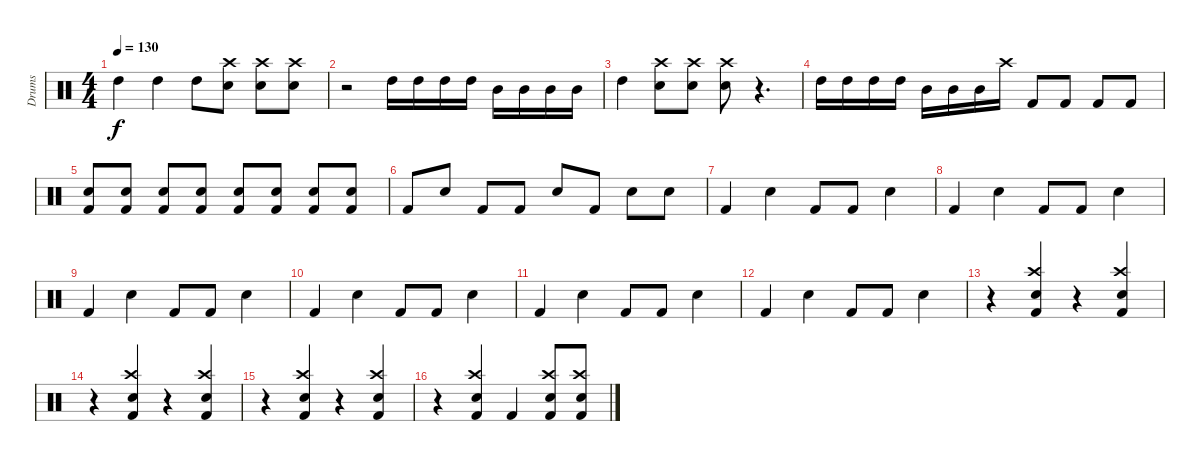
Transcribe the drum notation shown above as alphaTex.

\track ("Drums" "Drums") {instrument percussion}
\staff {score}
\articulation defaults
\ts (4 4)
\tempo 130
\clef neutral
\ks c "High Tom (hit)".4{dy f} "High Tom (hit)".4 "High Tom (hit)".8
("Snare (hit) 2" "Crash high (hit)").8 ("Snare (hit) 2" "Crash high (hit)").8 ("Snare (hit) 2" "Crash high (hit)").8 |
r.2 "High Tom (hit)".16 "High Tom (hit)".16 "High Tom (hit)".16 "High Tom (hit)".16 "Mid Tom (hit)".16 "Mid Tom (hit)".16 "Mid Tom (hit)".16 "Mid Tom (hit)".16 |
"High Tom (hit)".4 ("Snare (hit) 2" "Crash high (hit)").8 ("Snare (hit) 2" "Crash high (hit)").8 ("Snare (hit) 2" "Crash high (hit)").8 r.4{d} |
"High Tom (hit)".16 "High Tom (hit)".16 "High Tom (hit)".16 "High Tom (hit)".16 "Mid Tom (hit)".16 "Mid Tom (hit)".16 "Mid Tom (hit)".16 "Crash high (hit)".16 "Kick (hit) 2".8 "Kick (hit) 2".8 "Kick (hit) 2".8 "Kick (hit) 2".8 |
("Kick (hit) 2" "Snare (hit) 2").8 ("Kick (hit) 2" "Snare (hit) 2").8 ("Kick (hit) 2" "Snare (hit) 2").8 ("Kick (hit) 2" "Snare (hit) 2").8 ("Kick (hit) 2" "Snare (hit) 2").8 ("Kick (hit) 2" "Snare (hit) 2").8 ("Kick (hit) 2" "Snare (hit) 2").8 ("Kick (hit) 2" "Snare (hit) 2").8 |
"Kick (hit) 2".8 "Snare (hit) 2".8 "Kick (hit) 2".8 "Kick (hit) 2".8 "Snare (hit) 2".8 "Kick (hit) 2".8 "Snare (hit) 2".8 "Snare (hit) 2".8 |
"Kick (hit) 2".4 "Snare (hit) 2".4 "Kick (hit) 2".8 "Kick (hit) 2".8 "Snare (hit) 2".4 |
"Kick (hit) 2".4 "Snare (hit) 2".4 "Kick (hit) 2".8 "Kick (hit) 2".8 "Snare (hit) 2".4 |
"Kick (hit) 2".4 "Snare (hit) 2".4 "Kick (hit) 2".8 "Kick (hit) 2".8 "Snare (hit) 2".4 |
"Kick (hit) 2".4 "Snare (hit) 2".4 "Kick (hit) 2".8 "Kick (hit) 2".8 "Snare (hit) 2".4 |
"Kick (hit) 2".4 "Snare (hit) 2".4 "Kick (hit) 2".8 "Kick (hit) 2".8 "Snare (hit) 2".4 |
"Kick (hit) 2".4 "Snare (hit) 2".4 "Kick (hit) 2".8 "Kick (hit) 2".8 "Snare (hit) 2".4 |
r.4 ("Kick (hit) 2" "Snare (hit) 2" "Crash high (hit)").4 r.4 ("Kick (hit) 2" "Snare (hit) 2" "Crash high (hit)").4 |
r.4 ("Kick (hit) 2" "Snare (hit) 2" "Crash high (hit)").4 r.4 ("Kick (hit) 2" "Snare (hit) 2" "Crash high (hit)").4 |
r.4 ("Kick (hit) 2" "Snare (hit) 2" "Crash high (hit)").4 r.4 ("Kick (hit) 2" "Snare (hit) 2" "Crash high (hit)").4 |
r.4 ("Kick (hit) 2" "Snare (hit) 2" "Crash high (hit)").4 "Kick (hit) 2".4 ("Kick (hit) 2" "Snare (hit) 2" "Crash high (hit)").8 ("Kick (hit) 2" "Snare (hit) 2" "Crash high (hit)").8
